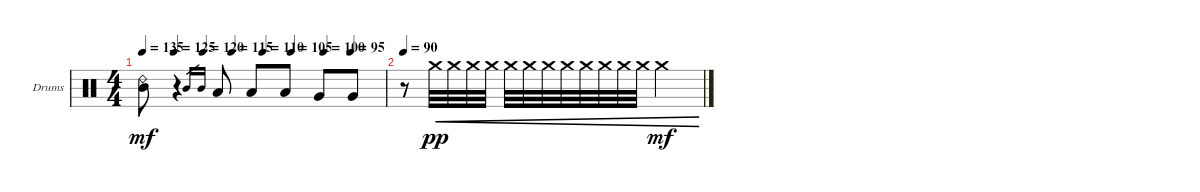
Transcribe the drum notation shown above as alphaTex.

\defaultSystemsLayout 4
\bracketExtendMode groupsimilarinstruments
\firstSystemTrackNameOrientation horizontal
\otherSystemsTrackNameOrientation horizontal
\track ("Drumkit" "Drums") {instrument percussion}
\staff {score}
\articulation defaults
\ts (4 4)
\tempo 135
\tempo (125 0.13125)
\tempo (120 0.25)
\tempo (115 0.368421)
\tempo (110 0.497076)
\tempo (105 0.614035)
\tempo (100 0.748538)
\tempo (95 0.859649)
\clef neutral
\ks c
("Ride (bell) 2" "Mid Tom (hit)").8{dy mf} r.4 "Mid Tom (hit)".16{gr} "Mid Tom (hit)".16{gr} "Low Tom (hit)".8 "Low Tom (hit)".8 "Low Tom (hit)".8 "Very Low Tom (hit)".8 "Very Low Tom (hit)".8 |
\tempo 90
r.8 "Crash medium (hit)".32{cre dy pp} "Crash medium (hit)".32{cre} "Crash medium (hit)".32{cre} "Crash medium (hit)".32{cre} "Crash medium (hit)".32{cre} "Crash medium (hit)".32{cre} "Crash medium (hit)".32{cre} "Crash medium (hit)".32{cre} "Crash medium (hit)".32{cre} "Crash medium (hit)".32{cre} "Crash medium (hit)".32{cre} "Crash medium (hit)".32{cre} "Crash medium (hit)".2{cre dy mf}
